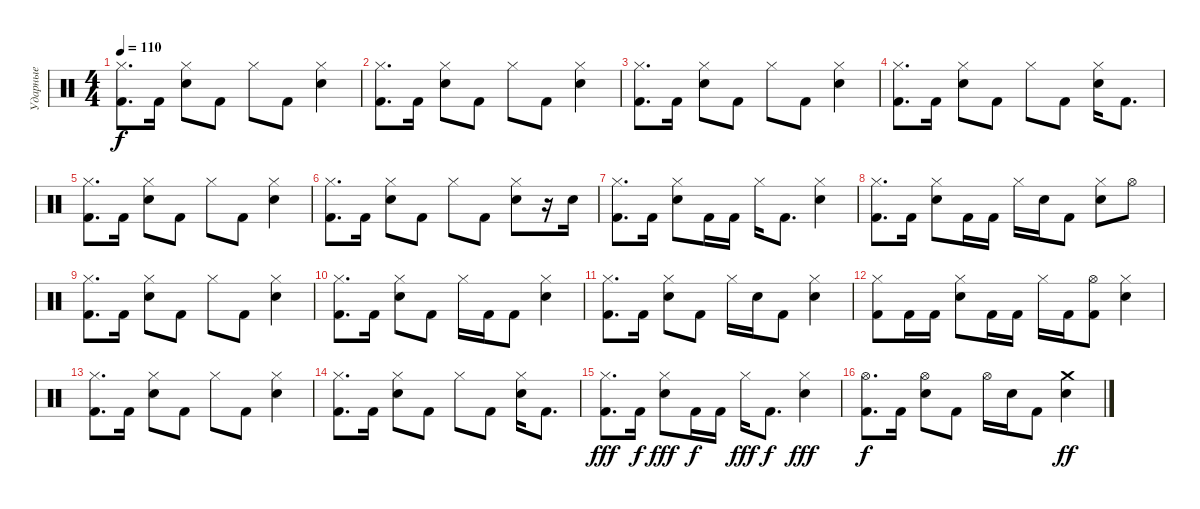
\track ("Ударные" "Ударные") {instrument percussion}
\staff {score}
\articulation defaults
\ts (4 4)
\tempo 110
\clef neutral
\ks c
("Kick (hit) 2" "Hi-Hat (closed)").8{d dy f} "Kick (hit) 2".16 ("Electric Snare (hit)" "Hi-Hat (closed)").8 "Kick (hit) 2".8 "Hi-Hat (closed)".8 "Kick (hit) 2".8 ("Electric Snare (hit)" "Hi-Hat (closed)").4 |
("Kick (hit) 2" "Hi-Hat (closed)").8{d} "Kick (hit) 2".16 ("Electric Snare (hit)" "Hi-Hat (closed)").8 "Kick (hit) 2".8 "Hi-Hat (closed)".8 "Kick (hit) 2".8 ("Electric Snare (hit)" "Hi-Hat (closed)").4 |
("Kick (hit) 2" "Hi-Hat (closed)").8{d} "Kick (hit) 2".16 ("Electric Snare (hit)" "Hi-Hat (closed)").8 "Kick (hit) 2".8 "Hi-Hat (closed)".8 "Kick (hit) 2".8 ("Electric Snare (hit)" "Hi-Hat (closed)").4 |
("Kick (hit) 2" "Hi-Hat (closed)").8{d} "Kick (hit) 2".16 ("Electric Snare (hit)" "Hi-Hat (closed)").8 "Kick (hit) 2".8 "Hi-Hat (closed)".8 "Kick (hit) 2".8 ("Electric Snare (hit)" "Hi-Hat (closed)").16 "Kick (hit) 2".8{d} |
("Kick (hit) 2" "Hi-Hat (closed)").8{d} "Kick (hit) 2".16 ("Electric Snare (hit)" "Hi-Hat (closed)").8 "Kick (hit) 2".8 "Hi-Hat (closed)".8 "Kick (hit) 2".8 ("Electric Snare (hit)" "Hi-Hat (closed)").4 |
("Kick (hit) 2" "Hi-Hat (closed)").8{d} "Kick (hit) 2".16 ("Electric Snare (hit)" "Hi-Hat (closed)").8 "Kick (hit) 2".8 "Hi-Hat (closed)".8 "Kick (hit) 2".8 ("Electric Snare (hit)" "Hi-Hat (closed)").8 r.16 "Electric Snare (hit)".16 |
("Kick (hit) 2" "Hi-Hat (closed)").8{d} "Kick (hit) 2".16 ("Electric Snare (hit)" "Hi-Hat (closed)").8 "Kick (hit) 2".16 "Kick (hit) 2".16 "Hi-Hat (closed)".16 "Kick (hit) 2".8{d} ("Electric Snare (hit)" "Hi-Hat (closed)").4 |
("Kick (hit) 2" "Hi-Hat (closed)").8{d} "Kick (hit) 2".16 ("Electric Snare (hit)" "Hi-Hat (closed)").8 "Kick (hit) 2".16 "Kick (hit) 2".16 "Hi-Hat (closed)".16 "Electric Snare (hit)".16 "Kick (hit) 2".8 ("Electric Snare (hit)" "Hi-Hat (closed)").8 "Hi-Hat (open)".8 |
("Kick (hit) 2" "Hi-Hat (closed)").8{d} "Kick (hit) 2".16 ("Electric Snare (hit)" "Hi-Hat (closed)").8 "Kick (hit) 2".8 "Hi-Hat (closed)".8 "Kick (hit) 2".8 ("Electric Snare (hit)" "Hi-Hat (closed)").4 |
("Kick (hit) 2" "Hi-Hat (closed)").8{d} "Kick (hit) 2".16 ("Electric Snare (hit)" "Hi-Hat (closed)").8 "Kick (hit) 2".8 "Hi-Hat (closed)".16 "Kick (hit) 2".16 "Kick (hit) 2".8 ("Electric Snare (hit)" "Hi-Hat (closed)").4 |
("Kick (hit) 2" "Hi-Hat (closed)").8{d} "Kick (hit) 2".16 ("Electric Snare (hit)" "Hi-Hat (closed)").8 "Kick (hit) 2".8 "Hi-Hat (closed)".16 "Electric Snare (hit)".16 "Kick (hit) 2".8 ("Electric Snare (hit)" "Hi-Hat (closed)").4 |
("Kick (hit) 2" "Hi-Hat (closed)").8 "Kick (hit) 2".16 "Kick (hit) 2".16 ("Electric Snare (hit)" "Hi-Hat (closed)").8 "Kick (hit) 2".16 "Kick (hit) 2".16 "Hi-Hat (closed)".16 "Kick (hit) 2".16 ("Kick (hit) 2" "Hi-Hat (open)").8 ("Electric Snare (hit)" "Hi-Hat (closed)").4 |
("Kick (hit) 2" "Hi-Hat (closed)").8{d} "Kick (hit) 2".16 ("Electric Snare (hit)" "Hi-Hat (closed)").8 "Kick (hit) 2".8 "Hi-Hat (closed)".8 "Kick (hit) 2".8 ("Electric Snare (hit)" "Hi-Hat (closed)").4 |
("Kick (hit) 2" "Hi-Hat (closed)").8{d} "Kick (hit) 2".16 ("Electric Snare (hit)" "Hi-Hat (closed)").8 "Kick (hit) 2".8 "Hi-Hat (closed)".8 "Kick (hit) 2".8 ("Electric Snare (hit)" "Hi-Hat (closed)").16 "Kick (hit) 2".8{d} |
("Kick (hit) 2" "Hi-Hat (closed)").8{d dy fff} "Kick (hit) 2".16{dy f} ("Electric Snare (hit)" "Hi-Hat (closed)").8{dy fff} "Kick (hit) 2".16{dy f} "Kick (hit) 2".16 "Hi-Hat (closed)".16{dy fff} "Kick (hit) 2".8{d dy f} ("Electric Snare (hit)" "Hi-Hat (closed)").4{dy fff} |
("Kick (hit) 2" "Hi-Hat (open)").8{d dy f} "Kick (hit) 2".16 ("Electric Snare (hit)" "Hi-Hat (open)").8 "Kick (hit) 2".8 "Hi-Hat (open)".16 "Electric Snare (hit)".16 "Kick (hit) 2".8 ("Crash medium (hit)" "Electric Snare (hit)").4{dy ff}
